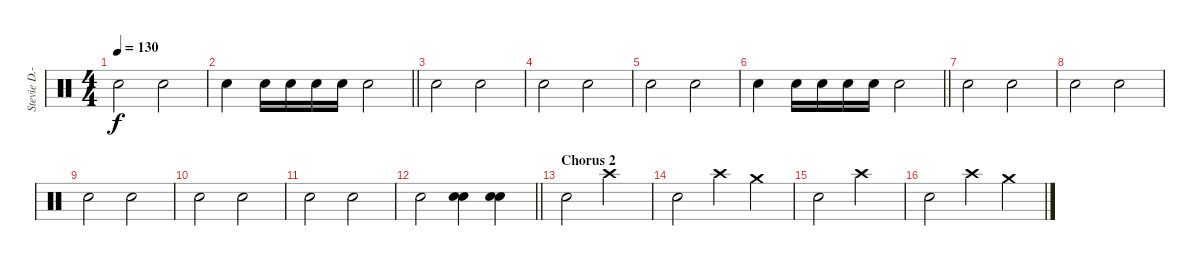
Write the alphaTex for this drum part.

\track ("Stevie D.-Drums" "Stevie D.-") {instrument percussion}
\staff {score}
\articulation defaults
\ts (4 4)
\tempo 130
\clef neutral
\ks c "Snare (hit) 2".2{dy f} "Snare (hit) 2".2
|
\barLineRight lightlight "Snare (hit) 2".4 "Electric Snare (hit)".16 "Electric Snare (hit)".16 "Electric Snare (hit)".16 "Electric Snare (hit)".16 "Snare (hit) 2".2
|
"Snare (hit) 2".2 "Snare (hit) 2".2 |
"Snare (hit) 2".2 "Snare (hit) 2".2 |
"Snare (hit) 2".2 "Snare (hit) 2".2 |
\barLineRight lightlight "Snare (hit) 2".4 "Electric Snare (hit)".16 "Electric Snare (hit)".16 "Electric Snare (hit)".16 "Electric Snare (hit)".16 "Snare (hit) 2".2
|
"Snare (hit) 2".2 "Snare (hit) 2".2 |
"Snare (hit) 2".2 "Snare (hit) 2".2 |
"Snare (hit) 2".2 "Snare (hit) 2".2 |
"Snare (hit) 2".2 "Snare (hit) 2".2 |
"Snare (hit) 2".2 "Snare (hit) 2".2 |
\barLineRight lightlight "Snare (hit) 2".2
("Electric Snare (hit)" "Snare (hit) 2").4 ("Electric Snare (hit)" "Snare (hit) 2").4 |
\section ("" "Chorus 2")
"Snare (hit) 2".2 "Crash high (hit)".2 |
"Snare (hit) 2".2 "Crash high (hit)".4 "Crash medium (hit)".4 |
"Snare (hit) 2".2 "Crash high (hit)".2 |
"Snare (hit) 2".2 "Crash high (hit)".4 "Crash medium (hit)".4
